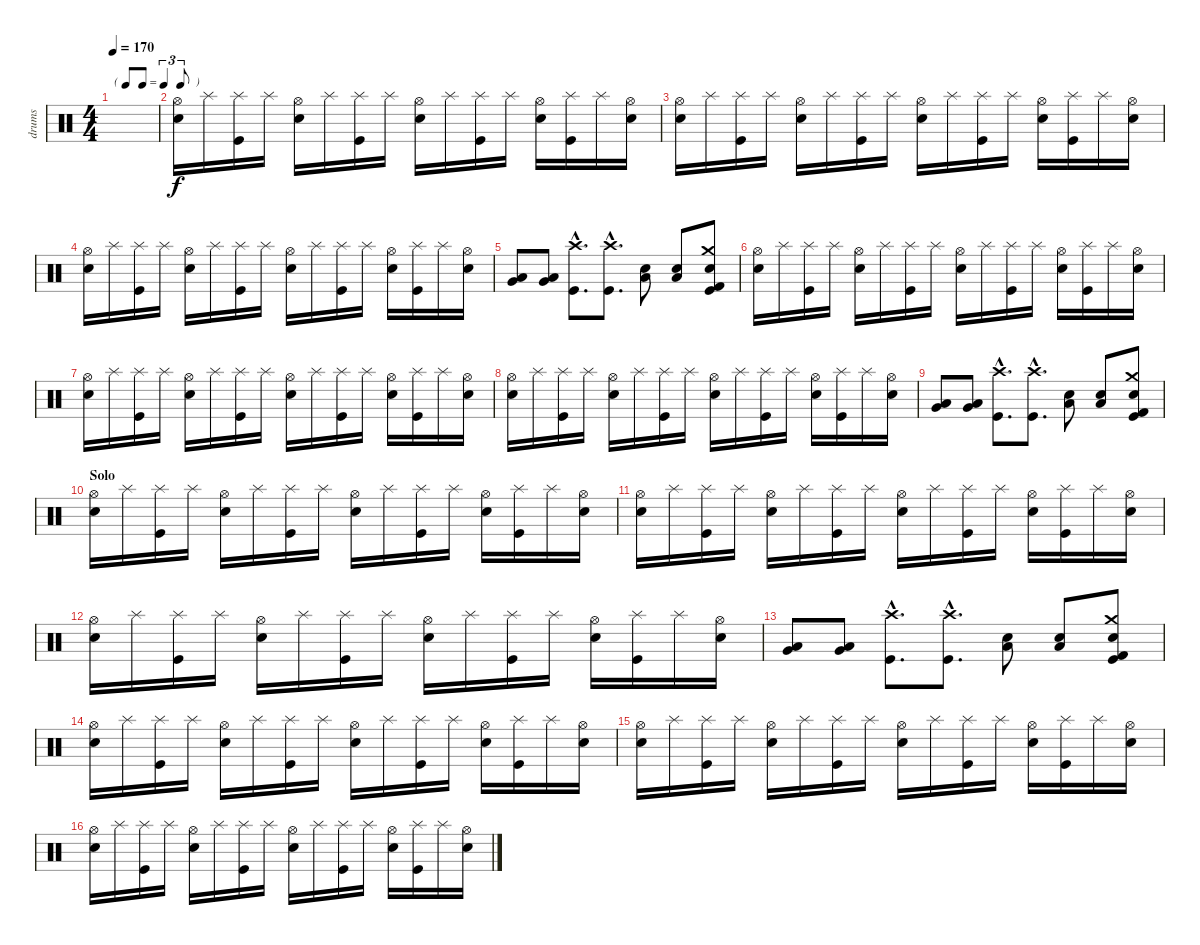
\track ("drums" "drums") {instrument percussion}
\staff {score}
\articulation defaults
\ts (4 4)
\tf triplet8th
\tempo 170
\clef neutral
\ks c
|
("Hi-Hat (open)" "Snare (hit) 2").16 "Splash (hit)".16 ("Splash (hit)" "Kick (hit)").16 "Splash (hit)".16 ("Hi-Hat (open)" "Snare (hit) 2").16 "Splash (hit)".16 ("Splash (hit)" "Kick (hit)").16 "Splash (hit)".16 ("Hi-Hat (open)" "Snare (hit) 2").16 "Splash (hit)".16 ("Splash (hit)" "Kick (hit)").16 "Splash (hit)".16 ("Hi-Hat (open)" "Snare (hit) 2").16 ("Splash (hit)" "Kick (hit)").16 "Splash (hit)".16 ("Hi-Hat (open)" "Snare (hit) 2").16 |
("Hi-Hat (open)" "Snare (hit) 2").16 "Splash (hit)".16 ("Splash (hit)" "Kick (hit)").16 "Splash (hit)".16 ("Hi-Hat (open)" "Snare (hit) 2").16 "Splash (hit)".16 ("Splash (hit)" "Kick (hit)").16 "Splash (hit)".16 ("Hi-Hat (open)" "Snare (hit) 2").16 "Splash (hit)".16 ("Splash (hit)" "Kick (hit)").16 "Splash (hit)".16 ("Hi-Hat (open)" "Snare (hit) 2").16 ("Splash (hit)" "Kick (hit)").16 "Splash (hit)".16 ("Hi-Hat (open)" "Snare (hit) 2").16 |
("Hi-Hat (open)" "Snare (hit) 2").16 "Splash (hit)".16 ("Splash (hit)" "Kick (hit)").16 "Splash (hit)".16 ("Hi-Hat (open)" "Snare (hit) 2").16 "Splash (hit)".16 ("Splash (hit)" "Kick (hit)").16 "Splash (hit)".16 ("Hi-Hat (open)" "Snare (hit) 2").16 "Splash (hit)".16 ("Splash (hit)" "Kick (hit)").16 "Splash (hit)".16 ("Hi-Hat (open)" "Snare (hit) 2").16 ("Splash (hit)" "Kick (hit)").16 "Splash (hit)".16 ("Hi-Hat (open)" "Snare (hit) 2").16 |
("Low Floor Tom (hit)" "Very Low Tom (hit)").8 ("Low Floor Tom (hit)" "Very Low Tom (hit)").8 ("Crash high (hit)"{hac} "Kick (hit)"{hac}).8{d} ("Crash high (hit)"{hac} "Kick (hit)"{hac}).8{d} ("Snare (hit) 2" "Low Floor Tom (hit)").8 ("Snare (hit) 2" "Low Floor Tom (hit)").8 ("Crash medium (hit)" "Electric Snare (hit)" "Kick (hit) 2" "Kick (hit)").8 |
("Hi-Hat (open)" "Snare (hit) 2").16 "Splash (hit)".16 ("Splash (hit)" "Kick (hit)").16 "Splash (hit)".16 ("Hi-Hat (open)" "Snare (hit) 2").16 "Splash (hit)".16 ("Splash (hit)" "Kick (hit)").16 "Splash (hit)".16 ("Hi-Hat (open)" "Snare (hit) 2").16 "Splash (hit)".16 ("Splash (hit)" "Kick (hit)").16 "Splash (hit)".16 ("Hi-Hat (open)" "Snare (hit) 2").16 ("Splash (hit)" "Kick (hit)").16 "Splash (hit)".16 ("Hi-Hat (open)" "Snare (hit) 2").16 |
("Hi-Hat (open)" "Snare (hit) 2").16 "Splash (hit)".16 ("Splash (hit)" "Kick (hit)").16 "Splash (hit)".16 ("Hi-Hat (open)" "Snare (hit) 2").16 "Splash (hit)".16 ("Splash (hit)" "Kick (hit)").16 "Splash (hit)".16 ("Hi-Hat (open)" "Snare (hit) 2").16 "Splash (hit)".16 ("Splash (hit)" "Kick (hit)").16 "Splash (hit)".16 ("Hi-Hat (open)" "Snare (hit) 2").16 ("Splash (hit)" "Kick (hit)").16 "Splash (hit)".16 ("Hi-Hat (open)" "Snare (hit) 2").16 |
("Hi-Hat (open)" "Snare (hit) 2").16 "Splash (hit)".16 ("Splash (hit)" "Kick (hit)").16 "Splash (hit)".16 ("Hi-Hat (open)" "Snare (hit) 2").16 "Splash (hit)".16 ("Splash (hit)" "Kick (hit)").16 "Splash (hit)".16 ("Hi-Hat (open)" "Snare (hit) 2").16 "Splash (hit)".16 ("Splash (hit)" "Kick (hit)").16 "Splash (hit)".16 ("Hi-Hat (open)" "Snare (hit) 2").16 ("Splash (hit)" "Kick (hit)").16 "Splash (hit)".16 ("Hi-Hat (open)" "Snare (hit) 2").16 |
("Low Floor Tom (hit)" "Very Low Tom (hit)").8 ("Low Floor Tom (hit)" "Very Low Tom (hit)").8 ("Crash high (hit)"{hac} "Kick (hit)"{hac}).8{d} ("Crash high (hit)"{hac} "Kick (hit)"{hac}).8{d} ("Snare (hit) 2" "Low Floor Tom (hit)").8 ("Snare (hit) 2" "Low Floor Tom (hit)").8 ("Crash medium (hit)" "Electric Snare (hit)" "Kick (hit) 2" "Kick (hit)").8 |
\section ("" "Solo")
("Hi-Hat (open)" "Snare (hit) 2").16 "Splash (hit)".16 ("Splash (hit)" "Kick (hit)").16 "Splash (hit)".16 ("Hi-Hat (open)" "Snare (hit) 2").16 "Splash (hit)".16 ("Splash (hit)" "Kick (hit)").16 "Splash (hit)".16 ("Hi-Hat (open)" "Snare (hit) 2").16 "Splash (hit)".16 ("Splash (hit)" "Kick (hit)").16 "Splash (hit)".16 ("Hi-Hat (open)" "Snare (hit) 2").16 ("Splash (hit)" "Kick (hit)").16 "Splash (hit)".16 ("Hi-Hat (open)" "Snare (hit) 2").16 |
("Hi-Hat (open)" "Snare (hit) 2").16 "Splash (hit)".16 ("Splash (hit)" "Kick (hit)").16 "Splash (hit)".16 ("Hi-Hat (open)" "Snare (hit) 2").16 "Splash (hit)".16 ("Splash (hit)" "Kick (hit)").16 "Splash (hit)".16 ("Hi-Hat (open)" "Snare (hit) 2").16 "Splash (hit)".16 ("Splash (hit)" "Kick (hit)").16 "Splash (hit)".16 ("Hi-Hat (open)" "Snare (hit) 2").16 ("Splash (hit)" "Kick (hit)").16 "Splash (hit)".16 ("Hi-Hat (open)" "Snare (hit) 2").16 |
("Hi-Hat (open)" "Snare (hit) 2").16 "Splash (hit)".16 ("Splash (hit)" "Kick (hit)").16 "Splash (hit)".16 ("Hi-Hat (open)" "Snare (hit) 2").16 "Splash (hit)".16 ("Splash (hit)" "Kick (hit)").16 "Splash (hit)".16 ("Hi-Hat (open)" "Snare (hit) 2").16 "Splash (hit)".16 ("Splash (hit)" "Kick (hit)").16 "Splash (hit)".16 ("Hi-Hat (open)" "Snare (hit) 2").16 ("Splash (hit)" "Kick (hit)").16 "Splash (hit)".16 ("Hi-Hat (open)" "Snare (hit) 2").16 |
("Low Floor Tom (hit)" "Very Low Tom (hit)").8 ("Low Floor Tom (hit)" "Very Low Tom (hit)").8 ("Crash high (hit)"{hac} "Kick (hit)"{hac}).8{d} ("Crash high (hit)"{hac} "Kick (hit)"{hac}).8{d} ("Snare (hit) 2" "Low Floor Tom (hit)").8 ("Snare (hit) 2" "Low Floor Tom (hit)").8 ("Crash medium (hit)" "Electric Snare (hit)" "Kick (hit) 2" "Kick (hit)").8 |
("Hi-Hat (open)" "Snare (hit) 2").16 "Splash (hit)".16 ("Splash (hit)" "Kick (hit)").16 "Splash (hit)".16 ("Hi-Hat (open)" "Snare (hit) 2").16 "Splash (hit)".16 ("Splash (hit)" "Kick (hit)").16 "Splash (hit)".16 ("Hi-Hat (open)" "Snare (hit) 2").16 "Splash (hit)".16 ("Splash (hit)" "Kick (hit)").16 "Splash (hit)".16 ("Hi-Hat (open)" "Snare (hit) 2").16 ("Splash (hit)" "Kick (hit)").16 "Splash (hit)".16 ("Hi-Hat (open)" "Snare (hit) 2").16 |
("Hi-Hat (open)" "Snare (hit) 2").16 "Splash (hit)".16 ("Splash (hit)" "Kick (hit)").16 "Splash (hit)".16 ("Hi-Hat (open)" "Snare (hit) 2").16 "Splash (hit)".16 ("Splash (hit)" "Kick (hit)").16 "Splash (hit)".16 ("Hi-Hat (open)" "Snare (hit) 2").16 "Splash (hit)".16 ("Splash (hit)" "Kick (hit)").16 "Splash (hit)".16 ("Hi-Hat (open)" "Snare (hit) 2").16 ("Splash (hit)" "Kick (hit)").16 "Splash (hit)".16 ("Hi-Hat (open)" "Snare (hit) 2").16 |
("Hi-Hat (open)" "Snare (hit) 2").16 "Splash (hit)".16 ("Splash (hit)" "Kick (hit)").16 "Splash (hit)".16 ("Hi-Hat (open)" "Snare (hit) 2").16 "Splash (hit)".16 ("Splash (hit)" "Kick (hit)").16 "Splash (hit)".16 ("Hi-Hat (open)" "Snare (hit) 2").16 "Splash (hit)".16 ("Splash (hit)" "Kick (hit)").16 "Splash (hit)".16 ("Hi-Hat (open)" "Snare (hit) 2").16 ("Splash (hit)" "Kick (hit)").16 "Splash (hit)".16 ("Hi-Hat (open)" "Snare (hit) 2").16
